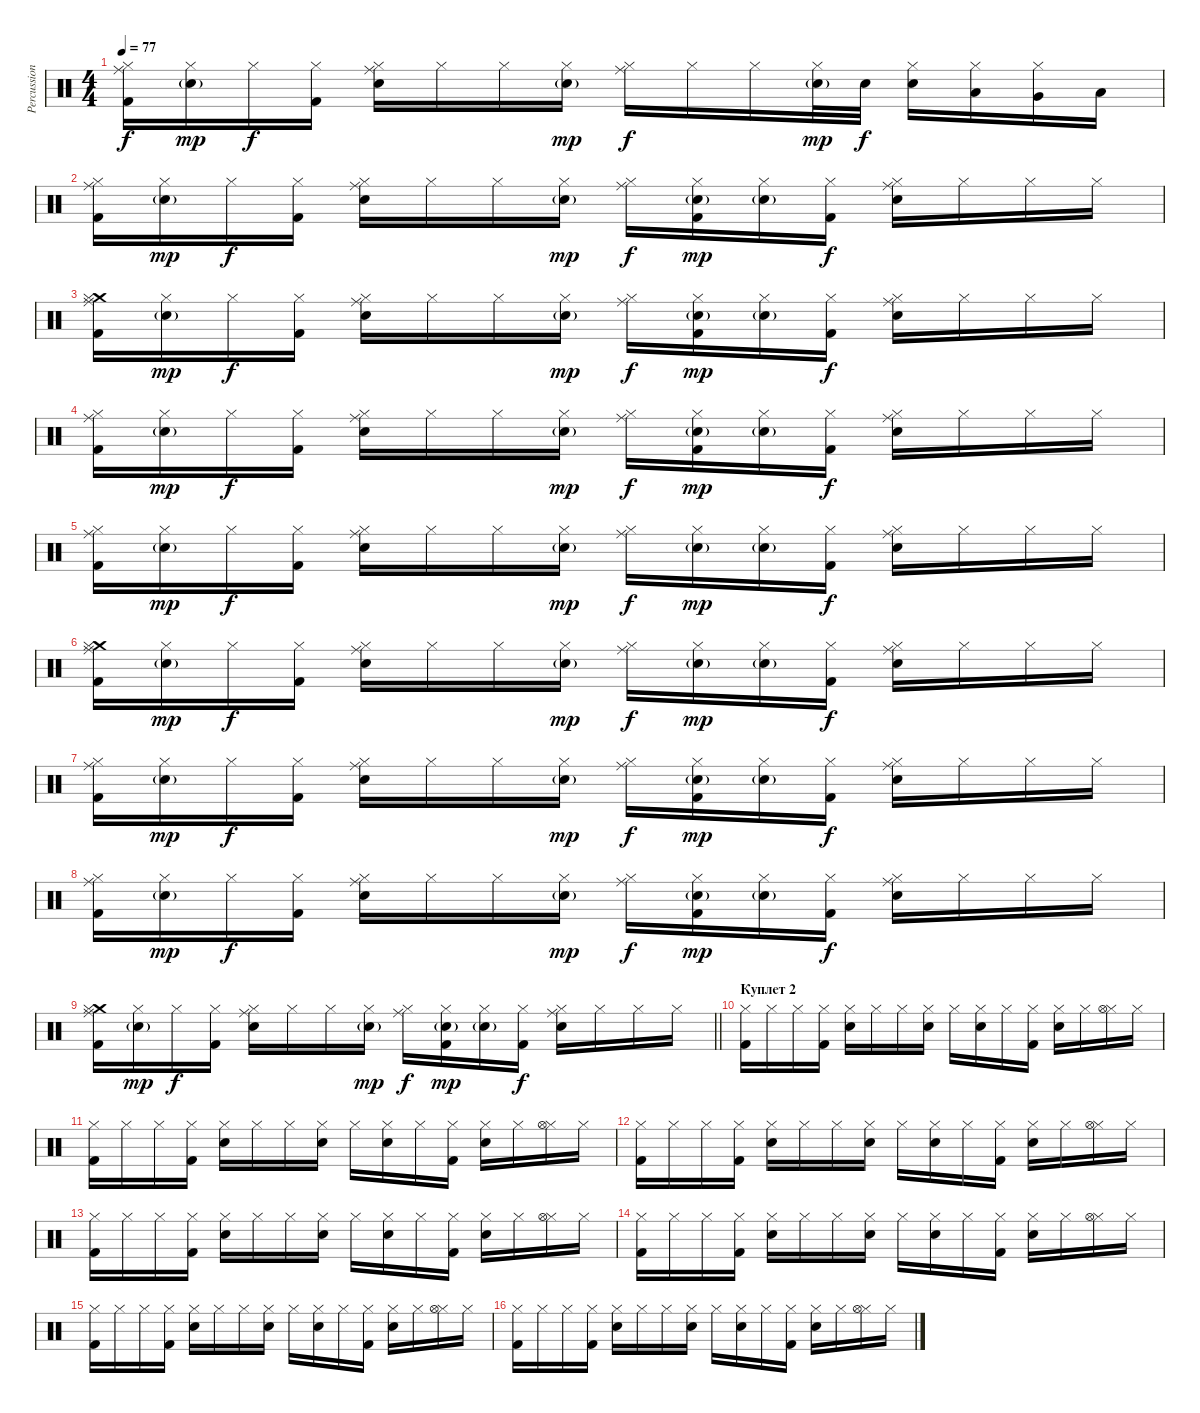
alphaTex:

\track ("Percussion" "Percussion") {instrument percussion}
\staff {score}
\articulation defaults
\ts (4 4)
\tempo 77
\clef neutral
\ks c
("Hi-Hat (closed)" "Ride (middle)" "Kick (hit) 2").16{dy f} ("Hi-Hat (closed)" "Electric Snare (hit)"{g}).16{dy mp} "Hi-Hat (closed)".16{dy f} ("Hi-Hat (closed)" "Kick (hit) 2").16 ("Hi-Hat (closed)" "Ride (middle)" "Electric Snare (hit)").16 "Hi-Hat (closed)".16 "Hi-Hat (closed)".16 ("Hi-Hat (closed)" "Electric Snare (hit)"{g}).16{dy mp} ("Hi-Hat (closed)" "Ride (middle)").16{dy f} "Hi-Hat (closed)".16 "Hi-Hat (closed)".16 ("Hi-Hat (closed)" "Electric Snare (hit)"{g}).32{dy mp} "Electric Snare (hit)".32{dy f} ("Hi-Hat (closed)" "Electric Snare (hit)").16 ("Hi-Hat (closed)" "Low Tom (hit)").16 ("Hi-Hat (closed)" "Very Low Tom (hit)").16 "Low Floor Tom (hit)".16 |
("Hi-Hat (closed)" "Ride (middle)" "Kick (hit) 2").16 ("Hi-Hat (closed)" "Electric Snare (hit)"{g}).16{dy mp} "Hi-Hat (closed)".16{dy f} ("Hi-Hat (closed)" "Kick (hit) 2").16 ("Hi-Hat (closed)" "Ride (middle)" "Electric Snare (hit)").16 "Hi-Hat (closed)".16 "Hi-Hat (closed)".16 ("Hi-Hat (closed)" "Electric Snare (hit)"{g}).16{dy mp} ("Hi-Hat (closed)" "Ride (middle)").16{dy f} ("Hi-Hat (closed)" "Electric Snare (hit)"{g} "Kick (hit) 2").16{dy mp} ("Hi-Hat (closed)" "Electric Snare (hit)"{g}).16 ("Hi-Hat (closed)" "Kick (hit) 2").16{dy f} ("Hi-Hat (closed)" "Ride (middle)" "Electric Snare (hit)").16 "Hi-Hat (closed)".16 "Hi-Hat (closed)".16 "Hi-Hat (closed)".16 |
("Crash medium (hit)" "Hi-Hat (closed)" "Ride (middle)" "Kick (hit) 2").16 ("Hi-Hat (closed)" "Electric Snare (hit)"{g}).16{dy mp} "Hi-Hat (closed)".16{dy f} ("Hi-Hat (closed)" "Kick (hit) 2").16 ("Hi-Hat (closed)" "Ride (middle)" "Electric Snare (hit)").16 "Hi-Hat (closed)".16 "Hi-Hat (closed)".16 ("Hi-Hat (closed)" "Electric Snare (hit)"{g}).16{dy mp} ("Hi-Hat (closed)" "Ride (middle)").16{dy f} ("Hi-Hat (closed)" "Electric Snare (hit)"{g} "Kick (hit) 2").16{dy mp} ("Hi-Hat (closed)" "Electric Snare (hit)"{g}).16 ("Hi-Hat (closed)" "Kick (hit) 2").16{dy f} ("Hi-Hat (closed)" "Ride (middle)" "Electric Snare (hit)").16 "Hi-Hat (closed)".16 "Hi-Hat (closed)".16 "Hi-Hat (closed)".16 |
("Hi-Hat (closed)" "Ride (middle)" "Kick (hit) 2").16 ("Hi-Hat (closed)" "Electric Snare (hit)"{g}).16{dy mp} "Hi-Hat (closed)".16{dy f} ("Hi-Hat (closed)" "Kick (hit) 2").16 ("Hi-Hat (closed)" "Ride (middle)" "Electric Snare (hit)").16 "Hi-Hat (closed)".16 "Hi-Hat (closed)".16 ("Hi-Hat (closed)" "Electric Snare (hit)"{g}).16{dy mp} ("Hi-Hat (closed)" "Ride (middle)").16{dy f} ("Hi-Hat (closed)" "Electric Snare (hit)"{g} "Kick (hit) 2").16{dy mp} ("Hi-Hat (closed)" "Electric Snare (hit)"{g}).16 ("Hi-Hat (closed)" "Kick (hit) 2").16{dy f} ("Hi-Hat (closed)" "Ride (middle)" "Electric Snare (hit)").16 "Hi-Hat (closed)".16 "Hi-Hat (closed)".16 "Hi-Hat (closed)".16 |
("Hi-Hat (closed)" "Ride (middle)" "Kick (hit) 2").16 ("Hi-Hat (closed)" "Electric Snare (hit)"{g}).16{dy mp} "Hi-Hat (closed)".16{dy f} ("Hi-Hat (closed)" "Kick (hit) 2").16 ("Hi-Hat (closed)" "Ride (middle)" "Electric Snare (hit)").16 "Hi-Hat (closed)".16 "Hi-Hat (closed)".16 ("Hi-Hat (closed)" "Electric Snare (hit)"{g}).16{dy mp} ("Hi-Hat (closed)" "Ride (middle)").16{dy f} ("Hi-Hat (closed)" "Electric Snare (hit)"{g}).16{dy mp} ("Hi-Hat (closed)" "Electric Snare (hit)"{g}).16 ("Hi-Hat (closed)" "Kick (hit) 2").16{dy f} ("Hi-Hat (closed)" "Ride (middle)" "Electric Snare (hit)").16 "Hi-Hat (closed)".16 "Hi-Hat (closed)".16 "Hi-Hat (closed)".16 |
("Crash medium (hit)" "Hi-Hat (closed)" "Ride (middle)" "Kick (hit) 2").16 ("Hi-Hat (closed)" "Electric Snare (hit)"{g}).16{dy mp} "Hi-Hat (closed)".16{dy f} ("Hi-Hat (closed)" "Kick (hit) 2").16 ("Hi-Hat (closed)" "Ride (middle)" "Electric Snare (hit)").16 "Hi-Hat (closed)".16 "Hi-Hat (closed)".16 ("Hi-Hat (closed)" "Electric Snare (hit)"{g}).16{dy mp} ("Hi-Hat (closed)" "Ride (middle)").16{dy f} ("Hi-Hat (closed)" "Electric Snare (hit)"{g}).16{dy mp} ("Hi-Hat (closed)" "Electric Snare (hit)"{g}).16 ("Hi-Hat (closed)" "Kick (hit) 2").16{dy f} ("Hi-Hat (closed)" "Ride (middle)" "Electric Snare (hit)").16 "Hi-Hat (closed)".16 "Hi-Hat (closed)".16 "Hi-Hat (closed)".16 |
("Hi-Hat (closed)" "Ride (middle)" "Kick (hit) 2").16 ("Hi-Hat (closed)" "Electric Snare (hit)"{g}).16{dy mp} "Hi-Hat (closed)".16{dy f} ("Hi-Hat (closed)" "Kick (hit) 2").16 ("Hi-Hat (closed)" "Ride (middle)" "Electric Snare (hit)").16 "Hi-Hat (closed)".16 "Hi-Hat (closed)".16 ("Hi-Hat (closed)" "Electric Snare (hit)"{g}).16{dy mp} ("Hi-Hat (closed)" "Ride (middle)").16{dy f} ("Hi-Hat (closed)" "Electric Snare (hit)"{g} "Kick (hit) 2").16{dy mp} ("Hi-Hat (closed)" "Electric Snare (hit)"{g}).16 ("Hi-Hat (closed)" "Kick (hit) 2").16{dy f} ("Hi-Hat (closed)" "Ride (middle)" "Electric Snare (hit)").16 "Hi-Hat (closed)".16 "Hi-Hat (closed)".16 "Hi-Hat (closed)".16 |
("Hi-Hat (closed)" "Ride (middle)" "Kick (hit) 2").16 ("Hi-Hat (closed)" "Electric Snare (hit)"{g}).16{dy mp} "Hi-Hat (closed)".16{dy f} ("Hi-Hat (closed)" "Kick (hit) 2").16 ("Hi-Hat (closed)" "Ride (middle)" "Electric Snare (hit)").16 "Hi-Hat (closed)".16 "Hi-Hat (closed)".16 ("Hi-Hat (closed)" "Electric Snare (hit)"{g}).16{dy mp} ("Hi-Hat (closed)" "Ride (middle)").16{dy f} ("Hi-Hat (closed)" "Electric Snare (hit)"{g} "Kick (hit) 2").16{dy mp} ("Hi-Hat (closed)" "Electric Snare (hit)"{g}).16 ("Hi-Hat (closed)" "Kick (hit) 2").16{dy f} ("Hi-Hat (closed)" "Ride (middle)" "Electric Snare (hit)").16 "Hi-Hat (closed)".16 "Hi-Hat (closed)".16 "Hi-Hat (closed)".16 |
\barLineRight lightlight
("Crash medium (hit)" "Hi-Hat (closed)" "Ride (middle)" "Kick (hit) 2").16 ("Hi-Hat (closed)" "Electric Snare (hit)"{g}).16{dy mp} "Hi-Hat (closed)".16{dy f} ("Hi-Hat (closed)" "Kick (hit) 2").16 ("Hi-Hat (closed)" "Ride (middle)" "Electric Snare (hit)").16 "Hi-Hat (closed)".16 "Hi-Hat (closed)".16 ("Hi-Hat (closed)" "Electric Snare (hit)"{g}).16{dy mp} ("Hi-Hat (closed)" "Ride (middle)").16{dy f} ("Hi-Hat (closed)" "Electric Snare (hit)"{g} "Kick (hit) 2").16{dy mp} ("Hi-Hat (closed)" "Electric Snare (hit)"{g}).16 ("Hi-Hat (closed)" "Kick (hit) 2").16{dy f} ("Hi-Hat (closed)" "Ride (middle)" "Electric Snare (hit)").16 "Hi-Hat (closed)".16 "Hi-Hat (closed)".16 "Hi-Hat (closed)".16 |
\section ("" "Куплет 2")
("Hi-Hat (closed)" "Kick (hit) 2").16 "Hi-Hat (closed)".16 "Hi-Hat (closed)".16 ("Hi-Hat (closed)" "Kick (hit) 2").16 ("Hi-Hat (closed)" "Electric Snare (hit)").16 "Hi-Hat (closed)".16 "Hi-Hat (closed)".16 ("Hi-Hat (closed)" "Electric Snare (hit)").16 "Hi-Hat (closed)".16 ("Hi-Hat (closed)" "Electric Snare (hit)").16 "Hi-Hat (closed)".16 ("Hi-Hat (closed)" "Kick (hit) 2").16 ("Hi-Hat (closed)" "Electric Snare (hit)").16 "Hi-Hat (closed)".16 ("Hi-Hat (closed)" "Hi-Hat (open)").16 "Hi-Hat (closed)".16 |
("Hi-Hat (closed)" "Kick (hit) 2").16 "Hi-Hat (closed)".16 "Hi-Hat (closed)".16 ("Hi-Hat (closed)" "Kick (hit) 2").16 ("Hi-Hat (closed)" "Electric Snare (hit)").16 "Hi-Hat (closed)".16 "Hi-Hat (closed)".16 ("Hi-Hat (closed)" "Electric Snare (hit)").16 "Hi-Hat (closed)".16 ("Hi-Hat (closed)" "Electric Snare (hit)").16 "Hi-Hat (closed)".16 ("Hi-Hat (closed)" "Kick (hit) 2").16 ("Hi-Hat (closed)" "Electric Snare (hit)").16 "Hi-Hat (closed)".16 ("Hi-Hat (closed)" "Hi-Hat (open)").16 "Hi-Hat (closed)".16 |
("Hi-Hat (closed)" "Kick (hit) 2").16 "Hi-Hat (closed)".16 "Hi-Hat (closed)".16 ("Hi-Hat (closed)" "Kick (hit) 2").16 ("Hi-Hat (closed)" "Electric Snare (hit)").16 "Hi-Hat (closed)".16 "Hi-Hat (closed)".16 ("Hi-Hat (closed)" "Electric Snare (hit)").16 "Hi-Hat (closed)".16 ("Hi-Hat (closed)" "Electric Snare (hit)").16 "Hi-Hat (closed)".16 ("Hi-Hat (closed)" "Kick (hit) 2").16 ("Hi-Hat (closed)" "Electric Snare (hit)").16 "Hi-Hat (closed)".16 ("Hi-Hat (closed)" "Hi-Hat (open)").16 "Hi-Hat (closed)".16 |
("Hi-Hat (closed)" "Kick (hit) 2").16 "Hi-Hat (closed)".16 "Hi-Hat (closed)".16 ("Hi-Hat (closed)" "Kick (hit) 2").16 ("Hi-Hat (closed)" "Electric Snare (hit)").16 "Hi-Hat (closed)".16 "Hi-Hat (closed)".16 ("Hi-Hat (closed)" "Electric Snare (hit)").16 "Hi-Hat (closed)".16 ("Hi-Hat (closed)" "Electric Snare (hit)").16 "Hi-Hat (closed)".16 ("Hi-Hat (closed)" "Kick (hit) 2").16 ("Hi-Hat (closed)" "Electric Snare (hit)").16 "Hi-Hat (closed)".16 ("Hi-Hat (closed)" "Hi-Hat (open)").16 "Hi-Hat (closed)".16 |
("Hi-Hat (closed)" "Kick (hit) 2").16 "Hi-Hat (closed)".16 "Hi-Hat (closed)".16 ("Hi-Hat (closed)" "Kick (hit) 2").16 ("Hi-Hat (closed)" "Electric Snare (hit)").16 "Hi-Hat (closed)".16 "Hi-Hat (closed)".16 ("Hi-Hat (closed)" "Electric Snare (hit)").16 "Hi-Hat (closed)".16 ("Hi-Hat (closed)" "Electric Snare (hit)").16 "Hi-Hat (closed)".16 ("Hi-Hat (closed)" "Kick (hit) 2").16 ("Hi-Hat (closed)" "Electric Snare (hit)").16 "Hi-Hat (closed)".16 ("Hi-Hat (closed)" "Hi-Hat (open)").16 "Hi-Hat (closed)".16 |
("Hi-Hat (closed)" "Kick (hit) 2").16 "Hi-Hat (closed)".16 "Hi-Hat (closed)".16 ("Hi-Hat (closed)" "Kick (hit) 2").16 ("Hi-Hat (closed)" "Electric Snare (hit)").16 "Hi-Hat (closed)".16 "Hi-Hat (closed)".16 ("Hi-Hat (closed)" "Electric Snare (hit)").16 "Hi-Hat (closed)".16 ("Hi-Hat (closed)" "Electric Snare (hit)").16 "Hi-Hat (closed)".16 ("Hi-Hat (closed)" "Kick (hit) 2").16 ("Hi-Hat (closed)" "Electric Snare (hit)").16 "Hi-Hat (closed)".16 ("Hi-Hat (closed)" "Hi-Hat (open)").16 "Hi-Hat (closed)".16 |
("Hi-Hat (closed)" "Kick (hit) 2").16 "Hi-Hat (closed)".16 "Hi-Hat (closed)".16 ("Hi-Hat (closed)" "Kick (hit) 2").16 ("Hi-Hat (closed)" "Electric Snare (hit)").16 "Hi-Hat (closed)".16 "Hi-Hat (closed)".16 ("Hi-Hat (closed)" "Electric Snare (hit)").16 "Hi-Hat (closed)".16 ("Hi-Hat (closed)" "Electric Snare (hit)").16 "Hi-Hat (closed)".16 ("Hi-Hat (closed)" "Kick (hit) 2").16 ("Hi-Hat (closed)" "Electric Snare (hit)").16 "Hi-Hat (closed)".16 ("Hi-Hat (closed)" "Hi-Hat (open)").16 "Hi-Hat (closed)".16
